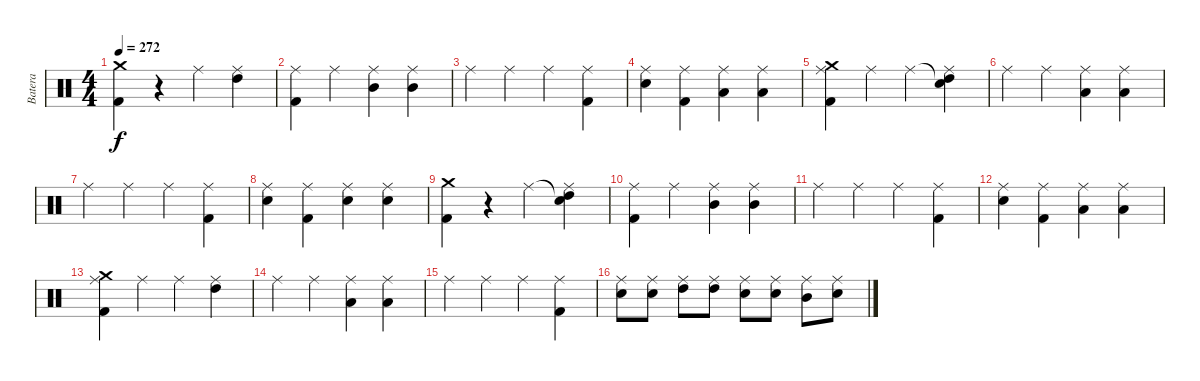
\track ("Batera" "Batera") {instrument percussion}
\staff {score}
\articulation defaults
\ts (4 4)
\tempo 272
\clef neutral
\ks c
("Crash medium (hit)" "Kick (hit) 2").4{dy f} r.4 "Ride (middle)".4 ("Ride (middle)" "High Tom (hit)").4 |
("Ride (middle)" "Kick (hit) 2").4 "Ride (middle)".4 ("Ride (middle)" "Mid Tom (hit)").4 ("Ride (middle)" "Mid Tom (hit)").4 |
"Ride (middle)".4 "Ride (middle)".4 "Ride (middle)".4 ("Ride (middle)" "Kick (hit) 2").4 |
("Ride (middle)" "Electric Snare (hit)").4 ("Ride (middle)" "Kick (hit) 2").4 ("Ride (middle)" "Low Floor Tom (hit)").4 ("Ride (middle)" "Low Floor Tom (hit)").4 |
("Crash medium (hit)" "Ride (middle)" "Kick (hit) 2").4 "Ride (middle)".4 "Ride (middle)".4 ("Snare (hit)"{t} "Ride (middle)" "High Tom (hit)").4 |
"Ride (middle)".4 "Ride (middle)".4 ("Ride (middle)" "Low Floor Tom (hit)").4 ("Ride (middle)" "Low Floor Tom (hit)").4 |
"Ride (middle)".4 "Ride (middle)".4 "Ride (middle)".4 ("Ride (middle)" "Kick (hit) 2").4 |
("Ride (middle)" "Electric Snare (hit)").4 ("Ride (middle)" "Kick (hit) 2").4 ("Ride (middle)" "Electric Snare (hit)").4 ("Ride (middle)" "Electric Snare (hit)").4 |
("Crash medium (hit)" "Kick (hit) 2").4 r.4 "Ride (middle)".4 ("Snare (hit)"{t} "Ride (middle)" "High Tom (hit)").4 |
("Ride (middle)" "Kick (hit) 2").4 "Ride (middle)".4 ("Ride (middle)" "Mid Tom (hit)").4 ("Ride (middle)" "Mid Tom (hit)").4 |
"Ride (middle)".4 "Ride (middle)".4 "Ride (middle)".4 ("Ride (middle)" "Kick (hit) 2").4 |
("Ride (middle)" "Electric Snare (hit)").4 ("Ride (middle)" "Kick (hit) 2").4 ("Ride (middle)" "Low Floor Tom (hit)").4 ("Ride (middle)" "Low Floor Tom (hit)").4 |
("Crash medium (hit)" "Ride (middle)" "Kick (hit) 2").4 "Ride (middle)".4 "Ride (middle)".4 ("Ride (middle)" "High Tom (hit)").4 |
"Ride (middle)".4 "Ride (middle)".4 ("Ride (middle)" "Low Floor Tom (hit)").4 ("Ride (middle)" "Low Floor Tom (hit)").4 |
"Ride (middle)".4 "Ride (middle)".4 "Ride (middle)".4 ("Ride (middle)" "Kick (hit) 2").4 |
("Ride (middle)" "Electric Snare (hit)").8 ("Ride (middle)" "Electric Snare (hit)").8 ("Ride (middle)" "High Tom (hit)").8 ("Ride (middle)" "High Tom (hit)").8 ("Ride (middle)" "Electric Snare (hit)").8 ("Ride (middle)" "Electric Snare (hit)").8 ("Ride (middle)" "Mid Tom (hit)").8 ("Ride (middle)" "Electric Snare (hit)").8
